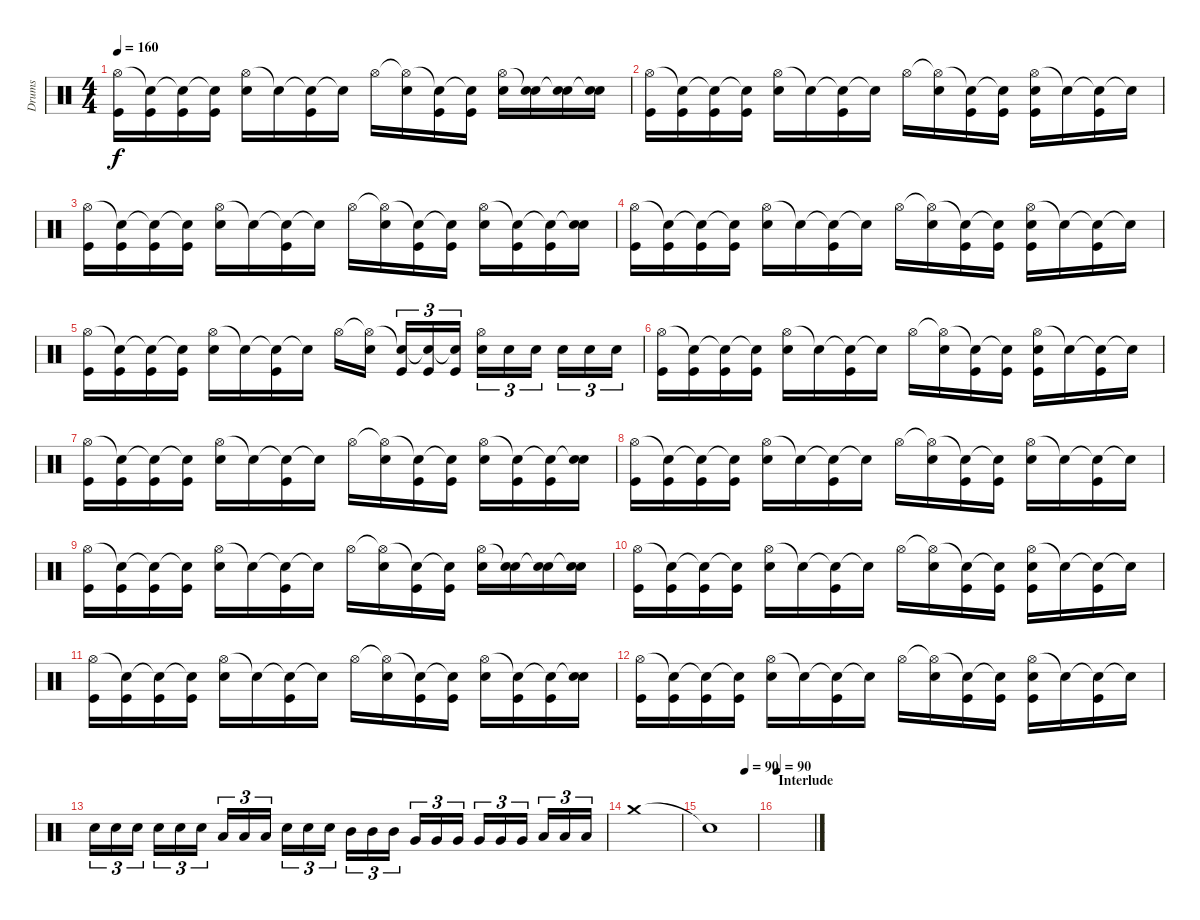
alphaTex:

\track ("Drums" "Drums") {instrument percussion}
\staff {score}
\articulation defaults
\ts (4 4)
\tempo 160
\clef neutral
\ks c
("Hi-Hat (open)" "Kick (hit)").16{dy f} ("Snare (hit)"{t} "Kick (hit)").16 ("Snare (hit)"{t} "Kick (hit)").16 ("Snare (hit)"{t} "Kick (hit)").16 ("Hi-Hat (open)" "Electric Snare (hit)").16 "Snare (hit)"{t}.16 ("Snare (hit)"{t} "Kick (hit)").16 "Snare (hit)"{t}.16 "Hi-Hat (open)".16 ("Hi-Hat (open)"{t} "Electric Snare (hit)").16 ("Snare (hit)"{t} "Kick (hit)").16 ("Snare (hit)"{t} "Kick (hit)").16 ("Hi-Hat (open)" "Electric Snare (hit)").16 ("Snare (hit)"{t} "Electric Snare (hit)").16 ("Snare (hit)"{t} "Electric Snare (hit)").16 ("Snare (hit)"{t} "Electric Snare (hit)").16 |
("Hi-Hat (open)" "Kick (hit)").16 ("Snare (hit)"{t} "Kick (hit)").16 ("Snare (hit)"{t} "Kick (hit)").16 ("Snare (hit)"{t} "Kick (hit)").16 ("Hi-Hat (open)" "Electric Snare (hit)").16 "Snare (hit)"{t}.16 ("Snare (hit)"{t} "Kick (hit)").16 "Snare (hit)"{t}.16 "Hi-Hat (open)".16 ("Hi-Hat (open)"{t} "Electric Snare (hit)").16 ("Snare (hit)"{t} "Kick (hit)").16 ("Snare (hit)"{t} "Kick (hit)").16 ("Hi-Hat (open)" "Electric Snare (hit)" "Kick (hit)").16 "Snare (hit)"{t}.16 ("Snare (hit)"{t} "Kick (hit)").16 "Snare (hit)"{t}.16 |
("Hi-Hat (open)" "Kick (hit)").16 ("Snare (hit)"{t} "Kick (hit)").16 ("Snare (hit)"{t} "Kick (hit)").16 ("Snare (hit)"{t} "Kick (hit)").16 ("Hi-Hat (open)" "Electric Snare (hit)").16 "Snare (hit)"{t}.16 ("Snare (hit)"{t} "Kick (hit)").16 "Snare (hit)"{t}.16 "Hi-Hat (open)".16 ("Hi-Hat (open)"{t} "Electric Snare (hit)").16 ("Snare (hit)"{t} "Kick (hit)").16 ("Snare (hit)"{t} "Kick (hit)").16 ("Hi-Hat (open)" "Electric Snare (hit)").16 ("Snare (hit)"{t} "Kick (hit)").16 ("Snare (hit)"{t} "Kick (hit)").16 ("Snare (hit)"{t} "Electric Snare (hit)").16 |
("Hi-Hat (open)" "Kick (hit)").16 ("Snare (hit)"{t} "Kick (hit)").16 ("Snare (hit)"{t} "Kick (hit)").16 ("Snare (hit)"{t} "Kick (hit)").16 ("Hi-Hat (open)" "Electric Snare (hit)").16 "Snare (hit)"{t}.16 ("Snare (hit)"{t} "Kick (hit)").16 "Snare (hit)"{t}.16 "Hi-Hat (open)".16 ("Hi-Hat (open)"{t} "Electric Snare (hit)").16 ("Snare (hit)"{t} "Kick (hit)").16 ("Snare (hit)"{t} "Kick (hit)").16 ("Hi-Hat (open)" "Electric Snare (hit)" "Kick (hit)").16 "Snare (hit)"{t}.16 ("Snare (hit)"{t} "Kick (hit)").16 "Snare (hit)"{t}.16 |
("Hi-Hat (open)" "Kick (hit)").16 ("Snare (hit)"{t} "Kick (hit)").16 ("Snare (hit)"{t} "Kick (hit)").16 ("Snare (hit)"{t} "Kick (hit)").16 ("Hi-Hat (open)" "Electric Snare (hit)").16 "Snare (hit)"{t}.16 ("Snare (hit)"{t} "Kick (hit)").16 "Snare (hit)"{t}.16 "Hi-Hat (open)".16 ("Hi-Hat (open)"{t} "Electric Snare (hit)").16 ("Snare (hit)"{t} "Kick (hit)").16{tu (3 2)} ("Snare (hit)"{t} "Kick (hit)").16{tu (3 2)} ("Snare (hit)"{t} "Kick (hit)").16{tu (3 2)} ("Hi-Hat (open)" "Electric Snare (hit)").16{tu (3 2)} "Electric Snare (hit)".16{tu (3 2)} "Electric Snare (hit)".16{tu (3 2)} "Electric Snare (hit)".16{tu (3 2)} "Electric Snare (hit)".16{tu (3 2)} "Electric Snare (hit)".16{tu (3 2)} |
("Hi-Hat (open)" "Kick (hit)").16 ("Snare (hit)"{t} "Kick (hit)").16 ("Snare (hit)"{t} "Kick (hit)").16 ("Snare (hit)"{t} "Kick (hit)").16 ("Hi-Hat (open)" "Electric Snare (hit)").16 "Snare (hit)"{t}.16 ("Snare (hit)"{t} "Kick (hit)").16 "Snare (hit)"{t}.16 "Hi-Hat (open)".16 ("Hi-Hat (open)"{t} "Electric Snare (hit)").16 ("Snare (hit)"{t} "Kick (hit)").16 ("Snare (hit)"{t} "Kick (hit)").16 ("Hi-Hat (open)" "Electric Snare (hit)" "Kick (hit)").16 "Snare (hit)"{t}.16 ("Snare (hit)"{t} "Kick (hit)").16 "Snare (hit)"{t}.16 |
("Hi-Hat (open)" "Kick (hit)").16 ("Snare (hit)"{t} "Kick (hit)").16 ("Snare (hit)"{t} "Kick (hit)").16 ("Snare (hit)"{t} "Kick (hit)").16 ("Hi-Hat (open)" "Electric Snare (hit)").16 "Snare (hit)"{t}.16 ("Snare (hit)"{t} "Kick (hit)").16 "Snare (hit)"{t}.16 "Hi-Hat (open)".16 ("Hi-Hat (open)"{t} "Electric Snare (hit)").16 ("Snare (hit)"{t} "Kick (hit)").16 ("Snare (hit)"{t} "Kick (hit)").16 ("Hi-Hat (open)" "Electric Snare (hit)").16 ("Snare (hit)"{t} "Kick (hit)").16 ("Snare (hit)"{t} "Kick (hit)").16 ("Snare (hit)"{t} "Electric Snare (hit)").16 |
("Hi-Hat (open)" "Kick (hit)").16 ("Snare (hit)"{t} "Kick (hit)").16 ("Snare (hit)"{t} "Kick (hit)").16 ("Snare (hit)"{t} "Kick (hit)").16 ("Hi-Hat (open)" "Electric Snare (hit)").16 "Snare (hit)"{t}.16 ("Snare (hit)"{t} "Kick (hit)").16 "Snare (hit)"{t}.16 "Hi-Hat (open)".16 ("Hi-Hat (open)"{t} "Electric Snare (hit)").16 ("Snare (hit)"{t} "Kick (hit)").16 ("Snare (hit)"{t} "Kick (hit)").16 ("Hi-Hat (open)" "Electric Snare (hit)").16 "Snare (hit)"{t}.16 ("Snare (hit)"{t} "Kick (hit)").16 "Snare (hit)"{t}.16 |
("Hi-Hat (open)" "Kick (hit)").16 ("Snare (hit)"{t} "Kick (hit)").16 ("Snare (hit)"{t} "Kick (hit)").16 ("Snare (hit)"{t} "Kick (hit)").16 ("Hi-Hat (open)" "Electric Snare (hit)").16 "Snare (hit)"{t}.16 ("Snare (hit)"{t} "Kick (hit)").16 "Snare (hit)"{t}.16 "Hi-Hat (open)".16 ("Hi-Hat (open)"{t} "Electric Snare (hit)").16 ("Snare (hit)"{t} "Kick (hit)").16 ("Snare (hit)"{t} "Kick (hit)").16 ("Hi-Hat (open)" "Electric Snare (hit)").16 ("Snare (hit)"{t} "Electric Snare (hit)").16 ("Snare (hit)"{t} "Electric Snare (hit)").16 ("Snare (hit)"{t} "Electric Snare (hit)").16 |
("Hi-Hat (open)" "Kick (hit)").16 ("Snare (hit)"{t} "Kick (hit)").16 ("Snare (hit)"{t} "Kick (hit)").16 ("Snare (hit)"{t} "Kick (hit)").16 ("Hi-Hat (open)" "Electric Snare (hit)").16 "Snare (hit)"{t}.16 ("Snare (hit)"{t} "Kick (hit)").16 "Snare (hit)"{t}.16 "Hi-Hat (open)".16 ("Hi-Hat (open)"{t} "Electric Snare (hit)").16 ("Snare (hit)"{t} "Kick (hit)").16 ("Snare (hit)"{t} "Kick (hit)").16 ("Hi-Hat (open)" "Electric Snare (hit)" "Kick (hit)").16 "Snare (hit)"{t}.16 ("Snare (hit)"{t} "Kick (hit)").16 "Snare (hit)"{t}.16 |
("Hi-Hat (open)" "Kick (hit)").16 ("Snare (hit)"{t} "Kick (hit)").16 ("Snare (hit)"{t} "Kick (hit)").16 ("Snare (hit)"{t} "Kick (hit)").16 ("Hi-Hat (open)" "Electric Snare (hit)").16 "Snare (hit)"{t}.16 ("Snare (hit)"{t} "Kick (hit)").16 "Snare (hit)"{t}.16 "Hi-Hat (open)".16 ("Hi-Hat (open)"{t} "Electric Snare (hit)").16 ("Snare (hit)"{t} "Kick (hit)").16 ("Snare (hit)"{t} "Kick (hit)").16 ("Hi-Hat (open)" "Electric Snare (hit)").16 ("Snare (hit)"{t} "Kick (hit)").16 ("Snare (hit)"{t} "Kick (hit)").16 ("Snare (hit)"{t} "Electric Snare (hit)").16 |
("Hi-Hat (open)" "Kick (hit)").16 ("Snare (hit)"{t} "Kick (hit)").16 ("Snare (hit)"{t} "Kick (hit)").16 ("Snare (hit)"{t} "Kick (hit)").16 ("Hi-Hat (open)" "Electric Snare (hit)").16 "Snare (hit)"{t}.16 ("Snare (hit)"{t} "Kick (hit)").16 "Snare (hit)"{t}.16 "Hi-Hat (open)".16 ("Hi-Hat (open)"{t} "Electric Snare (hit)").16 ("Snare (hit)"{t} "Kick (hit)").16 ("Snare (hit)"{t} "Kick (hit)").16 ("Hi-Hat (open)" "Electric Snare (hit)" "Kick (hit)").16 "Snare (hit)"{t}.16 ("Snare (hit)"{t} "Kick (hit)").16 "Snare (hit)"{t}.16 |
"Electric Snare (hit)".16{tu (3 2)} "Electric Snare (hit)".16{tu (3 2)} "Electric Snare (hit)".16{tu (3 2)} "Electric Snare (hit)".16{tu (3 2)} "Electric Snare (hit)".16{tu (3 2)} "Electric Snare (hit)".16{tu (3 2)} "Low Tom (hit)".16{tu (3 2)} "Low Tom (hit)".16{tu (3 2)} "Low Tom (hit)".16{tu (3 2)} "Electric Snare (hit)".16{tu (3 2)} "Electric Snare (hit)".16{tu (3 2)} "Electric Snare (hit)".16{tu (3 2)} "Mid Tom (hit)".16{tu (3 2)} "Mid Tom (hit)".16{tu (3 2)} "Mid Tom (hit)".16{tu (3 2)} "Very Low Tom (hit)".16{tu (3 2)} "Very Low Tom (hit)".16{tu (3 2)} "Very Low Tom (hit)".16{tu (3 2)} "Very Low Tom (hit)".16{tu (3 2)} "Very Low Tom (hit)".16{tu (3 2)} "Very Low Tom (hit)".16{tu (3 2)} "Low Floor Tom (hit)".16{tu (3 2)} "Low Floor Tom (hit)".16{tu (3 2)} "Low Floor Tom (hit)".16{tu (3 2)} |
"Crash medium (hit)".1 |
\tempo (90 0.75)
"Snare (hit)"{t}.1 |
\section ("" "Interlude")
\tempo 90
